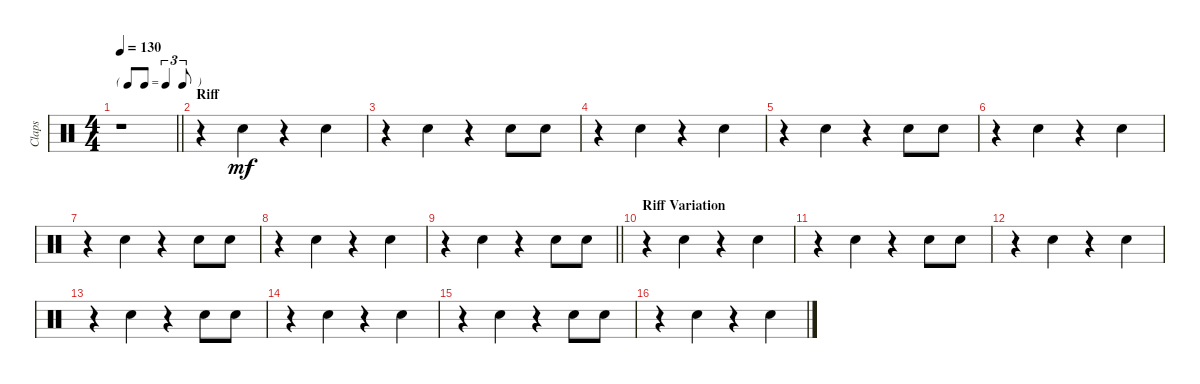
\track ("Claps" "Claps") {instrument percussion}
\staff {score}
\articulation defaults
\ts (4 4)
\tf triplet8th
\tempo 130
\clef neutral
\barLineRight lightlight
\ks c
r.1{dy mf} |
\section ("" "Riff")
r.4 "Hand Clap (hit)".4 r.4 "Hand Clap (hit)".4 |
r.4 "Hand Clap (hit)".4 r.4 "Hand Clap (hit)".8 "Hand Clap (hit)".8 |
r.4 "Hand Clap (hit)".4 r.4 "Hand Clap (hit)".4 |
r.4 "Hand Clap (hit)".4 r.4 "Hand Clap (hit)".8 "Hand Clap (hit)".8 |
r.4 "Hand Clap (hit)".4 r.4 "Hand Clap (hit)".4 |
r.4 "Hand Clap (hit)".4 r.4 "Hand Clap (hit)".8 "Hand Clap (hit)".8 |
r.4 "Hand Clap (hit)".4 r.4 "Hand Clap (hit)".4 |
\barLineRight lightlight
r.4 "Hand Clap (hit)".4 r.4 "Hand Clap (hit)".8 "Hand Clap (hit)".8 |
\section ("" "Riff Variation")
r.4 "Hand Clap (hit)".4 r.4 "Hand Clap (hit)".4 |
r.4 "Hand Clap (hit)".4 r.4 "Hand Clap (hit)".8 "Hand Clap (hit)".8 |
r.4 "Hand Clap (hit)".4 r.4 "Hand Clap (hit)".4 |
r.4 "Hand Clap (hit)".4 r.4 "Hand Clap (hit)".8 "Hand Clap (hit)".8 |
r.4 "Hand Clap (hit)".4 r.4 "Hand Clap (hit)".4 |
r.4 "Hand Clap (hit)".4 r.4 "Hand Clap (hit)".8 "Hand Clap (hit)".8 |
r.4 "Hand Clap (hit)".4 r.4 "Hand Clap (hit)".4
